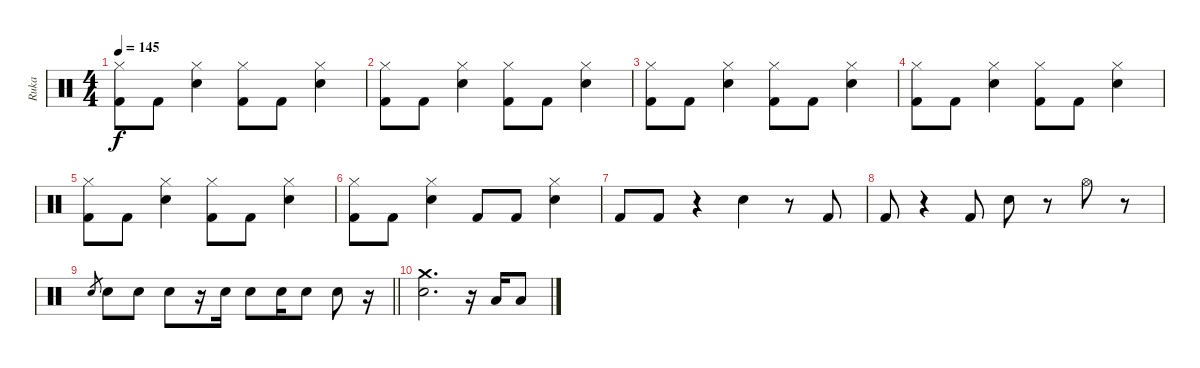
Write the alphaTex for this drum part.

\track ("Ruka" "Ruka") {instrument percussion}
\staff {score}
\articulation defaults
\ts (4 4)
\tempo 145
\clef neutral
\ks c
("Hi-Hat (closed)" "Kick (hit) 2").8{dy f} "Kick (hit) 2".8 ("Hi-Hat (closed)" "Electric Snare (hit)").4 ("Hi-Hat (closed)" "Kick (hit) 2").8 "Kick (hit) 2".8 ("Hi-Hat (closed)" "Electric Snare (hit)").4 |
("Hi-Hat (closed)" "Kick (hit) 2").8 "Kick (hit) 2".8 ("Hi-Hat (closed)" "Electric Snare (hit)").4 ("Hi-Hat (closed)" "Kick (hit) 2").8 "Kick (hit) 2".8 ("Hi-Hat (closed)" "Electric Snare (hit)").4 |
("Hi-Hat (closed)" "Kick (hit) 2").8 "Kick (hit) 2".8 ("Hi-Hat (closed)" "Electric Snare (hit)").4 ("Hi-Hat (closed)" "Kick (hit) 2").8 "Kick (hit) 2".8 ("Hi-Hat (closed)" "Electric Snare (hit)").4 |
("Hi-Hat (closed)" "Kick (hit) 2").8 "Kick (hit) 2".8 ("Hi-Hat (closed)" "Electric Snare (hit)").4 ("Hi-Hat (closed)" "Kick (hit) 2").8 "Kick (hit) 2".8 ("Hi-Hat (closed)" "Electric Snare (hit)").4 |
("Hi-Hat (closed)" "Kick (hit) 2").8 "Kick (hit) 2".8 ("Hi-Hat (closed)" "Electric Snare (hit)").4 ("Hi-Hat (closed)" "Kick (hit) 2").8 "Kick (hit) 2".8 ("Hi-Hat (closed)" "Electric Snare (hit)").4 |
("Hi-Hat (closed)" "Kick (hit) 2").8 "Kick (hit) 2".8 ("Hi-Hat (closed)" "Electric Snare (hit)").4 "Kick (hit) 2".8 "Kick (hit) 2".8 ("Hi-Hat (closed)" "Electric Snare (hit)").4 |
"Kick (hit) 2".8 "Kick (hit) 2".8 r.4 "Electric Snare (hit)".4 r.8 "Kick (hit) 2".8 |
"Kick (hit) 2".8 r.4 "Kick (hit) 2".8 "Electric Snare (hit)".8 r.8 "Hi-Hat (open)".8 r.8 |
\barLineRight lightlight "Electric Snare (hit)".8{gr} "Electric Snare (hit)".8 "Electric Snare (hit)".8 "Electric Snare (hit)".8
r.16 "Electric Snare (hit)".16 "Electric Snare (hit)".8 "Electric Snare (hit)".16 "Electric Snare (hit)".8 "Electric Snare (hit)".8 r.16 |
("Crash medium (hit)" "Electric Snare (hit)").2{d} r.16 "Low Floor Tom (hit)".16 "Low Floor Tom (hit)".8
